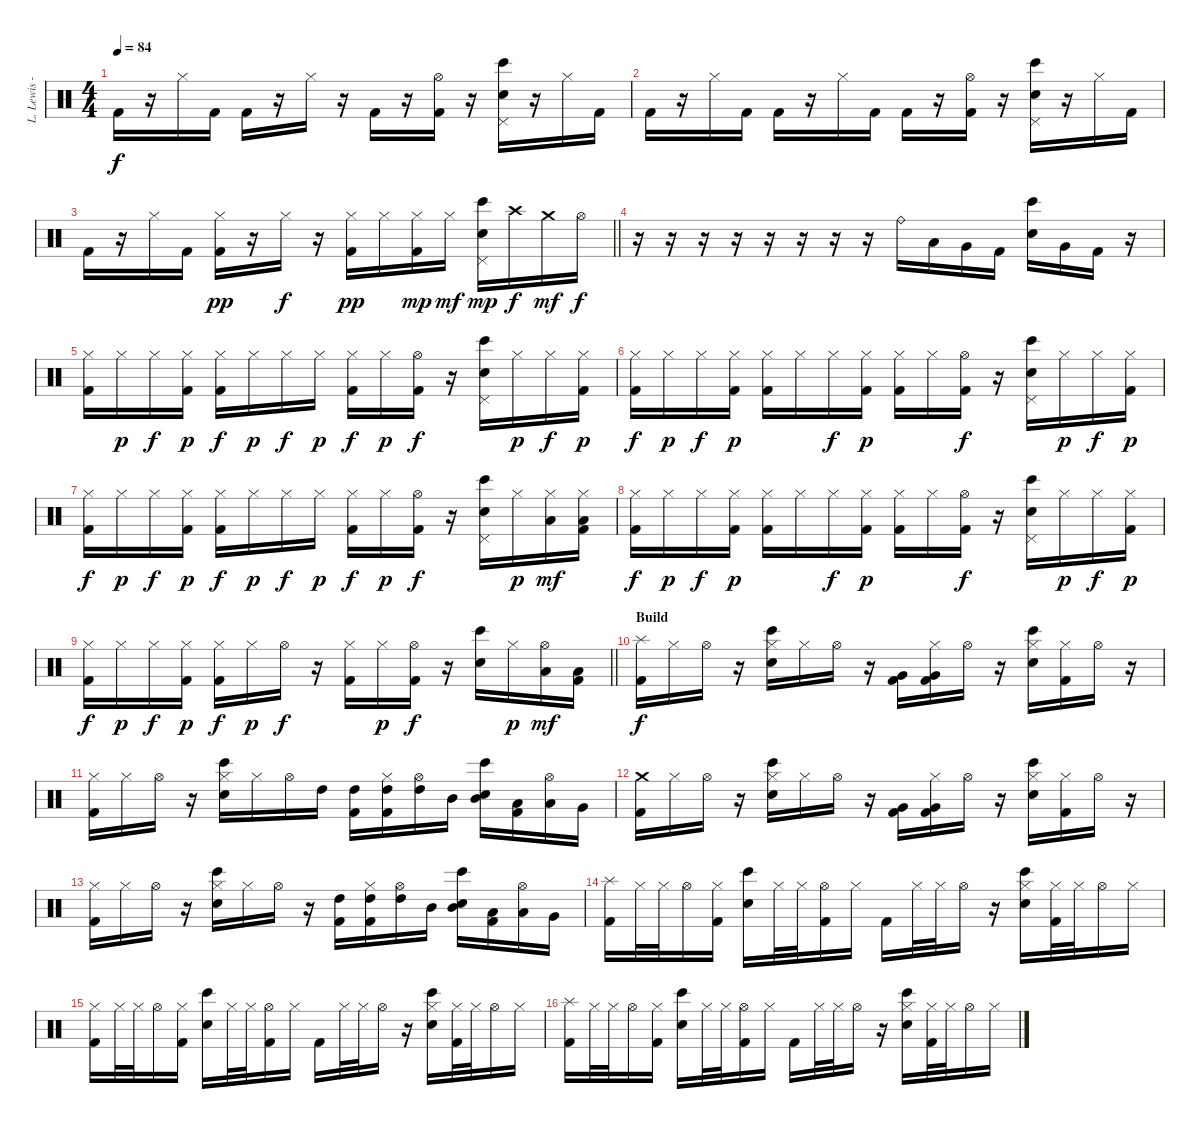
\track ("L. Lewis - Drums" "L. Lewis -") {instrument percussion}
\staff {score}
\articulation defaults
\ts (4 4)
\tempo 84
\clef neutral
\ks c "Kick (hit) 2".16{dy f}
r.16 "Hi-Hat (closed)".16 "Kick (hit) 2".16 "Kick (hit) 2".16 r.16 "Hi-Hat (closed)".16 r.16 "Kick (hit) 2".16 r.16 ("Hi-Hat (open)" "Kick (hit) 2").16 r.16 ("Pedal Hi-Hat (hit)" "Electric Snare (hit)" "Bongo High (hit)").16 r.16 "Hi-Hat (closed)".16 "Kick (hit) 2".16 |
"Kick (hit) 2".16 r.16 "Hi-Hat (closed)".16 "Kick (hit) 2".16 "Kick (hit) 2".16 r.16 "Hi-Hat (closed)".16 "Kick (hit) 2".16 "Kick (hit) 2".16 r.16 ("Hi-Hat (open)" "Kick (hit) 2").16 r.16 ("Pedal Hi-Hat (hit)" "Electric Snare (hit)" "Bongo High (hit)").16 r.16 "Hi-Hat (closed)".16 "Kick (hit) 2".16 |
\barLineRight lightlight "Kick (hit) 2".16
r.16 "Hi-Hat (closed)".16 "Kick (hit) 2".16 ("Hi-Hat (closed)" "Kick (hit) 2").16{dy pp} r.16 "Hi-Hat (closed)".16{dy f} r.16 ("Hi-Hat (closed)" "Kick (hit) 2").16{dy pp} "Hi-Hat (closed)".16 ("Hi-Hat (closed)" "Kick (hit) 2").16{dy mp} "Hi-Hat (closed)".16{dy mf} ("Pedal Hi-Hat (hit)" "Electric Snare (hit)" "Bongo High (hit)").16{dy mp} "Crash high (hit)".16{dy f} "Crash medium (hit)".16{dy mf} "Hi-Hat (open)".16{dy f} |
r.16 r.16 r.16 r.16 r.16 r.16 r.16 r.16 "Ride (bell)".16 "Low Tom (hit)".16 "Very Low Tom (hit)".16 "Kick (hit) 2".16 ("Electric Snare (hit)" "Bongo High (hit)").16 "Very Low Tom (hit)".16 "Kick (hit) 2".16 r.16 |
("Hi-Hat (closed)" "Kick (hit) 2").16 "Hi-Hat (closed)".16{dy p} "Hi-Hat (closed)".16{dy f} ("Hi-Hat (closed)" "Kick (hit) 2").16{dy p} ("Hi-Hat (closed)" "Kick (hit) 2").16{dy f} "Hi-Hat (closed)".16{dy p} "Hi-Hat (closed)".16{dy f} "Hi-Hat (closed)".16{dy p} ("Hi-Hat (closed)" "Kick (hit) 2").16{dy f} "Hi-Hat (closed)".16{dy p} ("Hi-Hat (open)" "Kick (hit) 2").16{dy f} r.16 ("Pedal Hi-Hat (hit)" "Electric Snare (hit)" "Bongo High (hit)").16 "Hi-Hat (closed)".16{dy p} "Hi-Hat (closed)".16{dy f} ("Hi-Hat (closed)" "Kick (hit) 2").16{dy p} |
("Hi-Hat (closed)" "Kick (hit) 2").16{dy f} "Hi-Hat (closed)".16{dy p} "Hi-Hat (closed)".16{dy f} ("Hi-Hat (closed)" "Kick (hit) 2").16{dy p} ("Hi-Hat (closed)" "Kick (hit) 2").16 "Hi-Hat (closed)".16 "Hi-Hat (closed)".16{dy f} ("Hi-Hat (closed)" "Kick (hit) 2").16{dy p} ("Hi-Hat (closed)" "Kick (hit) 2").16 "Hi-Hat (closed)".16 ("Hi-Hat (open)" "Kick (hit) 2").16{dy f} r.16 ("Pedal Hi-Hat (hit)" "Electric Snare (hit)" "Bongo High (hit)").16 "Hi-Hat (closed)".16{dy p} "Hi-Hat (closed)".16{dy f} ("Hi-Hat (closed)" "Kick (hit) 2").16{dy p} |
("Hi-Hat (closed)" "Kick (hit) 2").16{dy f} "Hi-Hat (closed)".16{dy p} "Hi-Hat (closed)".16{dy f} ("Hi-Hat (closed)" "Kick (hit) 2").16{dy p} ("Hi-Hat (closed)" "Kick (hit) 2").16{dy f} "Hi-Hat (closed)".16{dy p} "Hi-Hat (closed)".16{dy f} "Hi-Hat (closed)".16{dy p} ("Hi-Hat (closed)" "Kick (hit) 2").16{dy f} "Hi-Hat (closed)".16{dy p} ("Hi-Hat (open)" "Kick (hit) 2").16{dy f} r.16 ("Pedal Hi-Hat (hit)" "Electric Snare (hit)" "Bongo High (hit)").16 "Hi-Hat (closed)".16{dy p} ("Hi-Hat (closed)" "Low Tom (hit)").16{dy mf} ("Hi-Hat (closed)" "Low Tom (hit)" "Kick (hit) 2").16 |
("Hi-Hat (closed)" "Kick (hit) 2").16{dy f} "Hi-Hat (closed)".16{dy p} "Hi-Hat (closed)".16{dy f} ("Hi-Hat (closed)" "Kick (hit) 2").16{dy p} ("Hi-Hat (closed)" "Kick (hit) 2").16 "Hi-Hat (closed)".16 "Hi-Hat (closed)".16{dy f} ("Hi-Hat (closed)" "Kick (hit) 2").16{dy p} ("Hi-Hat (closed)" "Kick (hit) 2").16 "Hi-Hat (closed)".16 ("Hi-Hat (open)" "Kick (hit) 2").16{dy f} r.16 ("Pedal Hi-Hat (hit)" "Electric Snare (hit)" "Bongo High (hit)").16 "Hi-Hat (closed)".16{dy p} "Hi-Hat (closed)".16{dy f} ("Hi-Hat (closed)" "Kick (hit) 2").16{dy p} |
\barLineRight lightlight
("Hi-Hat (closed)" "Kick (hit) 2").16{dy f} "Hi-Hat (closed)".16{dy p} "Hi-Hat (closed)".16{dy f} ("Hi-Hat (closed)" "Kick (hit) 2").16{dy p} ("Hi-Hat (closed)" "Kick (hit) 2").16{dy f} "Hi-Hat (closed)".16{dy p} "Hi-Hat (open)".16{dy f} r.16 ("Hi-Hat (closed)" "Kick (hit) 2").16 "Hi-Hat (closed)".16{dy p} ("Hi-Hat (open)" "Kick (hit) 2").16{dy f} r.16 ("Electric Snare (hit)" "Bongo High (hit)").16 "Hi-Hat (closed)".16{dy p} ("Hi-Hat (open)" "Low Tom (hit)").16{dy mf} ("Low Tom (hit)" "Kick (hit) 2").16 |
\section ("" "Build")
("Splash (hit)" "Kick (hit) 2").16{dy f} "Hi-Hat (closed)".16 "Hi-Hat (open)".16 r.16 ("Hi-Hat (closed)" "Electric Snare (hit)" "Bongo High (hit)").16 "Hi-Hat (closed)".16 "Hi-Hat (open)".16 r.16 ("Very Low Tom (hit)" "Kick (hit) 2").16 ("Hi-Hat (closed)" "Very Low Tom (hit)" "Kick (hit) 2").16 "Hi-Hat (open)".16 r.16 ("Hi-Hat (closed)" "Electric Snare (hit)" "Bongo High (hit)").16 ("Hi-Hat (closed)" "Kick (hit) 2").16 "Hi-Hat (open)".16 r.16 |
("Hi-Hat (closed)" "Kick (hit) 2").16 "Hi-Hat (closed)".16 "Hi-Hat (open)".16 r.16 ("Hi-Hat (closed)" "Electric Snare (hit)" "Bongo High (hit)").16 "Hi-Hat (closed)".16 "Hi-Hat (open)".16 "High Tom (hit)".16 ("High Tom (hit)" "Kick (hit) 2").16 ("Hi-Hat (closed)" "High Tom (hit)" "Kick (hit) 2").16 ("Hi-Hat (open)" "High Tom (hit)").16 "Mid Tom (hit)".16 ("Mid Tom (hit)" "Electric Snare (hit)" "Bongo High (hit)").16 ("Low Tom (hit)" "Kick (hit) 2").16 ("Hi-Hat (open)" "Low Tom (hit)").16 "Very Low Tom (hit)".16 |
("Crash medium (hit)" "Kick (hit) 2").16 "Hi-Hat (closed)".16 "Hi-Hat (open)".16 r.16 ("Hi-Hat (closed)" "Electric Snare (hit)" "Bongo High (hit)").16 "Hi-Hat (closed)".16 "Hi-Hat (open)".16 r.16 ("Very Low Tom (hit)" "Kick (hit) 2").16 ("Hi-Hat (closed)" "Very Low Tom (hit)" "Kick (hit) 2").16 "Hi-Hat (open)".16 r.16 ("Hi-Hat (closed)" "Electric Snare (hit)" "Bongo High (hit)").16 ("Hi-Hat (closed)" "Kick (hit) 2").16 "Hi-Hat (open)".16 r.16 |
("Hi-Hat (closed)" "Kick (hit) 2").16 "Hi-Hat (closed)".16 "Hi-Hat (open)".16 r.16 ("Hi-Hat (closed)" "Electric Snare (hit)" "Bongo High (hit)").16 "Hi-Hat (closed)".16 "Hi-Hat (open)".16 r.16 ("High Tom (hit)" "Kick (hit) 2").16 ("Hi-Hat (closed)" "High Tom (hit)" "Kick (hit) 2").16 ("Hi-Hat (open)" "High Tom (hit)").16 "Mid Tom (hit)".16 ("Mid Tom (hit)" "Electric Snare (hit)" "Bongo High (hit)").16 ("Low Tom (hit)" "Kick (hit) 2").16 ("Hi-Hat (open)" "Low Tom (hit)").16 "Very Low Tom (hit)".16 |
("Splash (hit)" "Kick (hit) 2").16 "Hi-Hat (closed)".32 "Hi-Hat (closed)".32 "Hi-Hat (open)".16 ("Hi-Hat (closed)" "Kick (hit) 2").16 ("Electric Snare (hit)" "Bongo High (hit)").16 "Hi-Hat (closed)".32 "Hi-Hat (closed)".32 ("Hi-Hat (open)" "Kick (hit) 2").16 "Hi-Hat (closed)".16 "Kick (hit) 2".16 "Hi-Hat (closed)".32 "Hi-Hat (closed)".32 "Hi-Hat (open)".16 r.16 ("Hi-Hat (closed)" "Electric Snare (hit)" "Bongo High (hit)").16 ("Hi-Hat (closed)" "Kick (hit) 2").32 "Hi-Hat (closed)".32 "Hi-Hat (open)".16 "Hi-Hat (closed)".16 |
("Hi-Hat (closed)" "Kick (hit) 2").16 "Hi-Hat (closed)".32 "Hi-Hat (closed)".32 "Hi-Hat (open)".16 ("Hi-Hat (closed)" "Kick (hit) 2").16 ("Electric Snare (hit)" "Bongo High (hit)").16 "Hi-Hat (closed)".32 "Hi-Hat (closed)".32 ("Hi-Hat (open)" "Kick (hit) 2").16 "Hi-Hat (closed)".16 "Kick (hit) 2".16 "Hi-Hat (closed)".32 "Hi-Hat (closed)".32 "Hi-Hat (open)".16 r.16 ("Hi-Hat (closed)" "Electric Snare (hit)" "Bongo High (hit)").16 ("Hi-Hat (closed)" "Kick (hit) 2").32 "Hi-Hat (closed)".32 "Hi-Hat (open)".16 "Hi-Hat (closed)".16 |
("Splash (hit)" "Kick (hit) 2").16 "Hi-Hat (closed)".32 "Hi-Hat (closed)".32 "Hi-Hat (open)".16 ("Hi-Hat (closed)" "Kick (hit) 2").16 ("Electric Snare (hit)" "Bongo High (hit)").16 "Hi-Hat (closed)".32 "Hi-Hat (closed)".32 ("Hi-Hat (open)" "Kick (hit) 2").16 "Hi-Hat (closed)".16 "Kick (hit) 2".16 "Hi-Hat (closed)".32 "Hi-Hat (closed)".32 "Hi-Hat (open)".16 r.16 ("Hi-Hat (closed)" "Electric Snare (hit)" "Bongo High (hit)").16 ("Hi-Hat (closed)" "Kick (hit) 2").32 "Hi-Hat (closed)".32 "Hi-Hat (open)".16 "Hi-Hat (closed)".16
